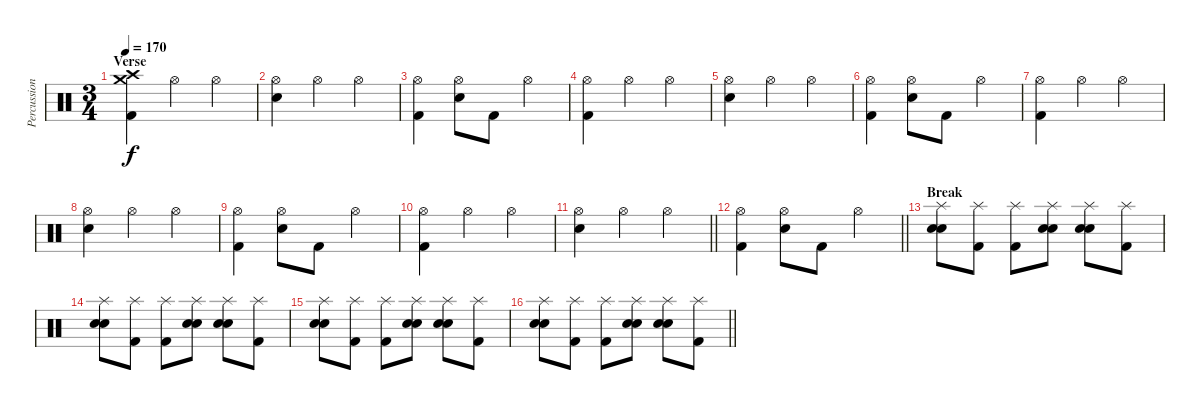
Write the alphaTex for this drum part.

\track ("Percussion" "Percussion") {instrument percussion}
\staff {score}
\articulation defaults
\ts (3 4)
\section ("" "Verse")
\tempo 170
\clef neutral
\ks c
("Crash medium (hit)" "Crash high (hit)" "Kick (hit) 2").4{dy f} "Hi-Hat (open)".4 "Hi-Hat (open)".4 |
("Hi-Hat (open)" "Electric Snare (hit)").4 "Hi-Hat (open)".4 "Hi-Hat (open)".4 |
("Hi-Hat (open)" "Kick (hit) 2").4 ("Hi-Hat (open)" "Electric Snare (hit)").8 "Kick (hit) 2".8 "Hi-Hat (open)".4 |
("Hi-Hat (open)" "Kick (hit) 2").4 "Hi-Hat (open)".4 "Hi-Hat (open)".4 |
("Hi-Hat (open)" "Electric Snare (hit)").4 "Hi-Hat (open)".4 "Hi-Hat (open)".4 |
("Hi-Hat (open)" "Kick (hit) 2").4 ("Hi-Hat (open)" "Electric Snare (hit)").8 "Kick (hit) 2".8 "Hi-Hat (open)".4 |
("Hi-Hat (open)" "Kick (hit) 2").4 "Hi-Hat (open)".4 "Hi-Hat (open)".4 |
("Hi-Hat (open)" "Electric Snare (hit)").4 "Hi-Hat (open)".4 "Hi-Hat (open)".4 |
("Hi-Hat (open)" "Kick (hit) 2").4 ("Hi-Hat (open)" "Electric Snare (hit)").8 "Kick (hit) 2".8 "Hi-Hat (open)".4 |
("Hi-Hat (open)" "Kick (hit) 2").4 "Hi-Hat (open)".4 "Hi-Hat (open)".4 |
\barLineRight lightlight
("Hi-Hat (open)" "Electric Snare (hit)").4 "Hi-Hat (open)".4 "Hi-Hat (open)".4 |
\barLineRight lightlight
("Hi-Hat (open)" "Kick (hit) 2").4 ("Hi-Hat (open)" "Electric Snare (hit)").8 "Kick (hit) 2".8 "Hi-Hat (open)".4 |
\section ("" "Break")
("Splash (hit)" "Electric Snare (hit)" "Electric Snare (hit)").8 ("Splash (hit)" "Kick (hit) 2").8 ("Splash (hit)" "Kick (hit) 2").8 ("Splash (hit)" "Electric Snare (hit)" "Electric Snare (hit)").8 ("Splash (hit)" "Electric Snare (hit)" "Electric Snare (hit)").8 ("Splash (hit)" "Kick (hit) 2").8 |
("Splash (hit)" "Electric Snare (hit)" "Electric Snare (hit)").8 ("Splash (hit)" "Kick (hit) 2").8 ("Splash (hit)" "Kick (hit) 2").8 ("Splash (hit)" "Electric Snare (hit)" "Electric Snare (hit)").8 ("Splash (hit)" "Electric Snare (hit)" "Electric Snare (hit)").8 ("Splash (hit)" "Kick (hit) 2").8 |
("Splash (hit)" "Electric Snare (hit)" "Electric Snare (hit)").8 ("Splash (hit)" "Kick (hit) 2").8 ("Splash (hit)" "Kick (hit) 2").8 ("Splash (hit)" "Electric Snare (hit)" "Electric Snare (hit)").8 ("Splash (hit)" "Electric Snare (hit)" "Electric Snare (hit)").8 ("Splash (hit)" "Kick (hit) 2").8 |
\barLineRight lightlight
("Splash (hit)" "Electric Snare (hit)" "Electric Snare (hit)").8 ("Splash (hit)" "Kick (hit) 2").8 ("Splash (hit)" "Kick (hit) 2").8 ("Splash (hit)" "Electric Snare (hit)" "Electric Snare (hit)").8 ("Splash (hit)" "Electric Snare (hit)" "Electric Snare (hit)").8 ("Splash (hit)" "Kick (hit) 2").8
